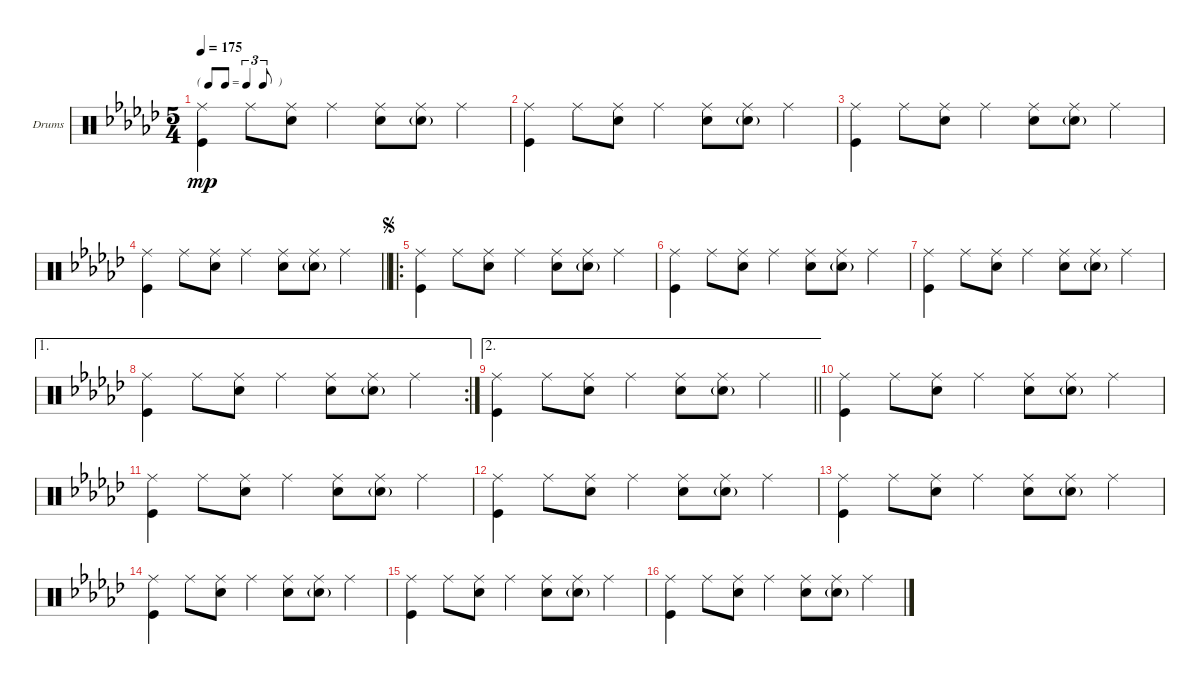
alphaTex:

\defaultSystemsLayout 4
\bracketExtendMode groupsimilarinstruments
\firstSystemTrackNameOrientation horizontal
\otherSystemsTrackNameOrientation horizontal
\track ("Drumkit" "Drums") {multiBarRest instrument percussion}
\staff {score}
\articulation defaults
\ts (5 4)
\tf triplet8th
\tempo 175
\clef neutral
\ks ebminor
("Ride (middle)" "Kick (hit)").4{dy mp} "Ride (middle)".8 ("Ride (middle)" "Snare (hit) 2").8 "Ride (middle)".4 ("Ride (middle)" "Snare (hit) 2").8 ("Ride (middle)" "Snare (hit) 2"{g}).8 "Ride (middle)".4 |
("Ride (middle)" "Kick (hit)").4 "Ride (middle)".8 ("Ride (middle)" "Snare (hit) 2").8 "Ride (middle)".4 ("Ride (middle)" "Snare (hit) 2").8 ("Ride (middle)" "Snare (hit) 2"{g}).8 "Ride (middle)".4 |
("Ride (middle)" "Kick (hit)").4 "Ride (middle)".8 ("Ride (middle)" "Snare (hit) 2").8 "Ride (middle)".4 ("Ride (middle)" "Snare (hit) 2").8 ("Ride (middle)" "Snare (hit) 2"{g}).8 "Ride (middle)".4 |
\barLineRight lightlight
("Ride (middle)" "Kick (hit)").4 "Ride (middle)".8 ("Ride (middle)" "Snare (hit) 2").8 "Ride (middle)".4 ("Ride (middle)" "Snare (hit) 2").8 ("Ride (middle)" "Snare (hit) 2"{g}).8 "Ride (middle)".4 |
\ro
\jump segno
("Ride (middle)" "Kick (hit)").4 "Ride (middle)".8 ("Ride (middle)" "Snare (hit) 2").8 "Ride (middle)".4 ("Ride (middle)" "Snare (hit) 2").8 ("Ride (middle)" "Snare (hit) 2"{g}).8 "Ride (middle)".4 |
("Ride (middle)" "Kick (hit)").4 "Ride (middle)".8 ("Ride (middle)" "Snare (hit) 2").8 "Ride (middle)".4 ("Ride (middle)" "Snare (hit) 2").8 ("Ride (middle)" "Snare (hit) 2"{g}).8 "Ride (middle)".4 |
("Ride (middle)" "Kick (hit)").4 "Ride (middle)".8 ("Ride (middle)" "Snare (hit) 2").8 "Ride (middle)".4 ("Ride (middle)" "Snare (hit) 2").8 ("Ride (middle)" "Snare (hit) 2"{g}).8 "Ride (middle)".4 |
\ae 1
\rc 2
("Ride (middle)" "Kick (hit)").4 "Ride (middle)".8 ("Ride (middle)" "Snare (hit) 2").8 "Ride (middle)".4 ("Ride (middle)" "Snare (hit) 2").8 ("Ride (middle)" "Snare (hit) 2"{g}).8 "Ride (middle)".4 |
\ae 2
\barLineRight lightlight
("Ride (middle)" "Kick (hit)").4 "Ride (middle)".8 ("Ride (middle)" "Snare (hit) 2").8 "Ride (middle)".4 ("Ride (middle)" "Snare (hit) 2").8 ("Ride (middle)" "Snare (hit) 2"{g}).8 "Ride (middle)".4 |
("Ride (middle)" "Kick (hit)").4 "Ride (middle)".8 ("Ride (middle)" "Snare (hit) 2").8 "Ride (middle)".4 ("Ride (middle)" "Snare (hit) 2").8 ("Ride (middle)" "Snare (hit) 2"{g}).8 "Ride (middle)".4 |
("Ride (middle)" "Kick (hit)").4 "Ride (middle)".8 ("Ride (middle)" "Snare (hit) 2").8 "Ride (middle)".4 ("Ride (middle)" "Snare (hit) 2").8 ("Ride (middle)" "Snare (hit) 2"{g}).8 "Ride (middle)".4 |
("Ride (middle)" "Kick (hit)").4 "Ride (middle)".8 ("Ride (middle)" "Snare (hit) 2").8 "Ride (middle)".4 ("Ride (middle)" "Snare (hit) 2").8 ("Ride (middle)" "Snare (hit) 2"{g}).8 "Ride (middle)".4 |
("Ride (middle)" "Kick (hit)").4 "Ride (middle)".8 ("Ride (middle)" "Snare (hit) 2").8 "Ride (middle)".4 ("Ride (middle)" "Snare (hit) 2").8 ("Ride (middle)" "Snare (hit) 2"{g}).8 "Ride (middle)".4 |
("Ride (middle)" "Kick (hit)").4 "Ride (middle)".8 ("Ride (middle)" "Snare (hit) 2").8 "Ride (middle)".4 ("Ride (middle)" "Snare (hit) 2").8 ("Ride (middle)" "Snare (hit) 2"{g}).8 "Ride (middle)".4 |
("Ride (middle)" "Kick (hit)").4 "Ride (middle)".8 ("Ride (middle)" "Snare (hit) 2").8 "Ride (middle)".4 ("Ride (middle)" "Snare (hit) 2").8 ("Ride (middle)" "Snare (hit) 2"{g}).8 "Ride (middle)".4 |
("Ride (middle)" "Kick (hit)").4 "Ride (middle)".8 ("Ride (middle)" "Snare (hit) 2").8 "Ride (middle)".4 ("Ride (middle)" "Snare (hit) 2").8 ("Ride (middle)" "Snare (hit) 2"{g}).8 "Ride (middle)".4
